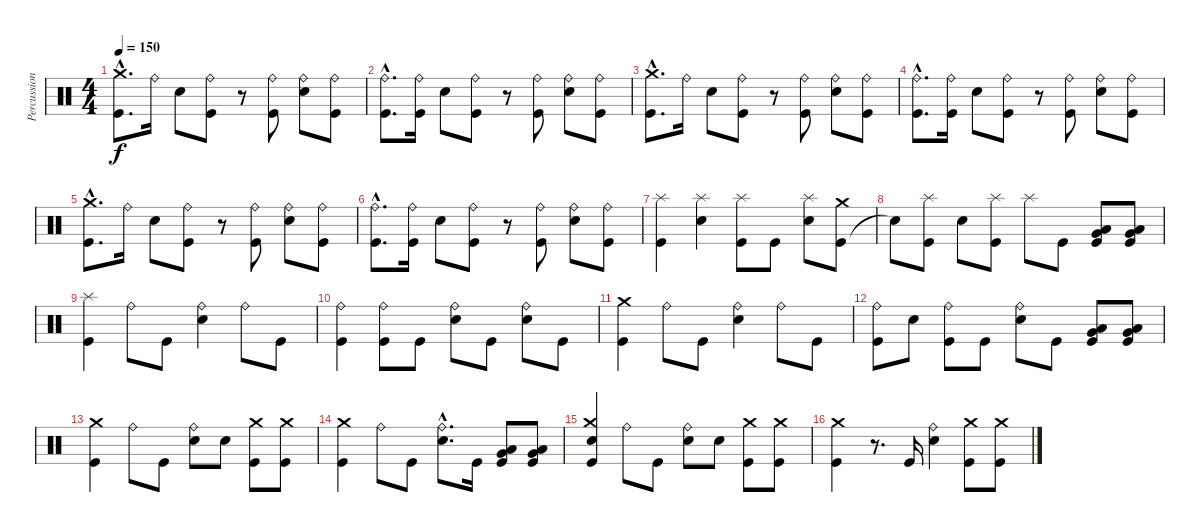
\track ("Percussions" "Percussion") {instrument percussion}
\staff {score}
\articulation defaults
\ts (4 4)
\tempo 150
\clef neutral
\ks c
("Kick (hit)"{hac} "Crash medium (hit)"{hac}).8{d dy f} "Ride (bell)".16 "Electric Snare (hit)".8 ("Kick (hit)" "Ride (bell)").8 r.8 ("Kick (hit)" "Ride (bell)").8 ("Electric Snare (hit)" "Ride (bell)").8 ("Kick (hit)" "Ride (bell)").8 |
("Kick (hit)"{hac} "Ride (bell)"{hac}).8{d} ("Kick (hit)" "Ride (bell)").16 "Electric Snare (hit)".8 ("Kick (hit)" "Ride (bell)").8 r.8 ("Kick (hit)" "Ride (bell)").8 ("Electric Snare (hit)" "Ride (bell)").8 ("Kick (hit)" "Ride (bell)").8 |
("Kick (hit)"{hac} "Crash medium (hit)"{hac}).8{d} "Ride (bell)".16 "Electric Snare (hit)".8 ("Kick (hit)" "Ride (bell)").8 r.8 ("Kick (hit)" "Ride (bell)").8 ("Electric Snare (hit)" "Ride (bell)").8 ("Kick (hit)" "Ride (bell)").8 |
("Kick (hit)"{hac} "Ride (bell)"{hac}).8{d} ("Kick (hit)" "Ride (bell)").16 "Electric Snare (hit)".8 ("Kick (hit)" "Ride (bell)").8 r.8 ("Kick (hit)" "Ride (bell)").8 ("Electric Snare (hit)" "Ride (bell)").8 ("Kick (hit)" "Ride (bell)").8 |
("Kick (hit)"{hac} "Crash medium (hit)"{hac}).8{d} "Ride (bell)".16 "Electric Snare (hit)".8 ("Kick (hit)" "Ride (bell)").8 r.8 ("Kick (hit)" "Ride (bell)").8 ("Electric Snare (hit)" "Ride (bell)").8 ("Kick (hit)" "Ride (bell)").8 |
("Kick (hit)"{hac} "Ride (bell)"{hac}).8{d} ("Kick (hit)" "Ride (bell)").16 "Electric Snare (hit)".8 ("Kick (hit)" "Ride (bell)").8 r.8 ("Kick (hit)" "Ride (bell)").8 ("Electric Snare (hit)" "Ride (bell)").8 ("Kick (hit)" "Ride (bell)").8 |
("Kick (hit)" "Splash (hit)").4 ("Electric Snare (hit)" "Splash (hit)").4 ("Kick (hit)" "Splash (hit)").8 "Kick (hit)".8 ("Electric Snare (hit)" "Splash (hit)").8 ("Kick (hit)" "Crash medium (hit)").8 |
"Snare (hit)"{t}.8 ("Kick (hit)" "Splash (hit)").8 "Electric Snare (hit)".8 ("Kick (hit)" "Splash (hit)").8 "Splash (hit)".8 "Kick (hit)".8 ("Kick (hit)" "Low Tom (hit)" "Very Low Tom (hit)").8 ("Kick (hit)" "Very Low Tom (hit)" "Low Floor Tom (hit)").8 |
("Kick (hit)" "Splash (hit)").4 "Ride (bell)".8 "Kick (hit)".8 ("Electric Snare (hit)" "Ride (bell)").4 "Ride (bell)".8 "Kick (hit)".8 |
("Kick (hit)" "Ride (bell)").4 ("Kick (hit)" "Ride (bell)").8 "Kick (hit)".8 ("Electric Snare (hit)" "Ride (bell)").8 "Kick (hit)".8 ("Electric Snare (hit)" "Ride (bell)").8 "Kick (hit)".8 |
("Kick (hit)" "Crash medium (hit)").4 "Ride (bell)".8 "Kick (hit)".8 ("Electric Snare (hit)" "Ride (bell)").4 "Ride (bell)".8 "Kick (hit)".8 |
("Kick (hit)" "Ride (bell)").8 "Electric Snare (hit)".8 ("Kick (hit)" "Ride (bell)").8 "Kick (hit)".8 ("Electric Snare (hit)" "Ride (bell)").8 "Kick (hit)".8 ("Kick (hit)" "Low Tom (hit)" "Very Low Tom (hit)").8 ("Kick (hit)" "Very Low Tom (hit)" "Low Floor Tom (hit)").8 |
("Kick (hit)" "Crash medium (hit)").4 "Ride (bell)".8 "Kick (hit)".8 ("Electric Snare (hit)" "Ride (bell)").8 "Electric Snare (hit)".8 ("Kick (hit)" "Crash medium (hit)").8 ("Kick (hit)" "Crash medium (hit)").8 |
("Kick (hit)" "Crash medium (hit)").4 "Ride (bell)".8 "Kick (hit)".8 ("Electric Snare (hit)"{hac} "Ride (bell)"{hac}).8{d} "Kick (hit)".16 ("Kick (hit)" "Low Tom (hit)" "Very Low Tom (hit)").8 ("Kick (hit)" "Very Low Tom (hit)" "Low Floor Tom (hit)").8 |
("Kick (hit)" "Electric Snare (hit)" "Crash medium (hit)").4 "Ride (bell)".8 "Kick (hit)".8 ("Electric Snare (hit)" "Ride (bell)").8 "Electric Snare (hit)".8 ("Kick (hit)" "Crash medium (hit)").8 ("Kick (hit)" "Crash medium (hit)").8 |
("Kick (hit)" "Crash medium (hit)").4 r.8{d} "Kick (hit)".16 ("Electric Snare (hit)" "Ride (bell)").4 ("Kick (hit)" "Crash medium (hit)").8 ("Kick (hit)" "Crash medium (hit)").8
